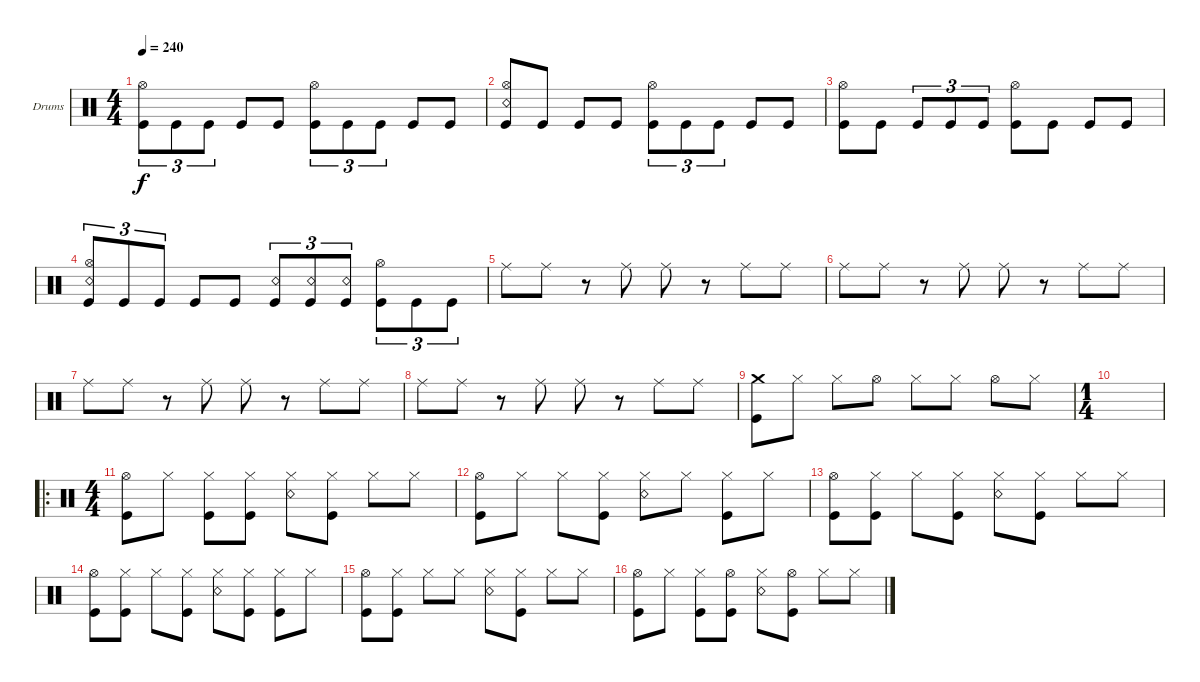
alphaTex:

\bracketExtendMode groupsimilarinstruments
\firstSystemTrackNameOrientation horizontal
\otherSystemsTrackNameOrientation horizontal
\track ("Drumkit" "Drums") {instrument percussion}
\staff {score}
\articulation defaults
\ts (4 4)
\tempo 240
\clef neutral
\ks c
("Kick (hit)" "Hi-Hat (open)").8{tu (3 2) dy f} "Kick (hit)".8{tu (3 2)} "Kick (hit)".8{tu (3 2)} "Kick (hit)".8 "Kick (hit)".8 ("Kick (hit)" "Hi-Hat (open)").8{tu (3 2)} "Kick (hit)".8{tu (3 2)} "Kick (hit)".8{tu (3 2)} "Kick (hit)".8 "Kick (hit)".8 |
("Hi-Hat (open)" "Kick (hit)" "Snare (rim shot)").8 "Kick (hit)".8 "Kick (hit)".8 "Kick (hit)".8 ("Hi-Hat (open)" "Kick (hit)").8{tu (3 2)} "Kick (hit)".8{tu (3 2)} "Kick (hit)".8{tu (3 2)} "Kick (hit)".8 "Kick (hit)".8 |
("Kick (hit)" "Hi-Hat (open)").8 "Kick (hit)".8 "Kick (hit)".8{tu (3 2)} "Kick (hit)".8{tu (3 2)} "Kick (hit)".8{tu (3 2)} ("Kick (hit)" "Hi-Hat (open)").8 "Kick (hit)".8 "Kick (hit)".8 "Kick (hit)".8 |
("Kick (hit)" "Hi-Hat (open)" "Snare (rim shot)").8{tu (3 2)} "Kick (hit)".8{tu (3 2)} "Kick (hit)".8{tu (3 2)} "Kick (hit)".8 "Kick (hit)".8 ("Kick (hit)" "Snare (rim shot)").8{tu (3 2)} ("Kick (hit)" "Snare (rim shot)").8{tu (3 2)} ("Kick (hit)" "Snare (rim shot)").8{tu (3 2)} ("Kick (hit)" "Hi-Hat (open)").8{tu (3 2)} "Kick (hit)".8{tu (3 2)} "Kick (hit)".8{tu (3 2)} |
"Ride (middle)".8 "Ride (middle)".8 r.8 "Ride (middle)".8 "Ride (middle)".8 r.8 "Ride (middle)".8 "Ride (middle)".8 |
"Ride (middle)".8 "Ride (middle)".8 r.8 "Ride (middle)".8 "Ride (middle)".8 r.8 "Ride (middle)".8 "Ride (middle)".8 |
"Ride (middle)".8 "Ride (middle)".8 r.8 "Ride (middle)".8 "Ride (middle)".8 r.8 "Ride (middle)".8 "Ride (middle)".8 |
"Ride (middle)".8 "Ride (middle)".8 r.8 "Ride (middle)".8 "Ride (middle)".8 r.8 "Ride (middle)".8 "Ride (middle)".8 |
("Crash medium (hit)" "Kick (hit)").8 "Hi-Hat (closed)".8 "Hi-Hat (closed)".8 "Hi-Hat (open)".8 "Hi-Hat (closed)".8 "Hi-Hat (closed)".8 "Hi-Hat (open)".8 "Hi-Hat (closed)".8 |
\ts (1 4)
|
\ro
\ts (4 4)
("Hi-Hat (open)" "Kick (hit)").8 "Hi-Hat (closed)".8 ("Hi-Hat (closed)" "Kick (hit)").8 ("Hi-Hat (closed)" "Kick (hit)").8 ("Snare (rim shot)" "Hi-Hat (closed)").8 ("Hi-Hat (closed)" "Kick (hit)").8 "Hi-Hat (closed)".8 "Hi-Hat (closed)".8 |
("Hi-Hat (open)" "Kick (hit)").8 "Hi-Hat (closed)".8 "Hi-Hat (closed)".8 ("Hi-Hat (closed)" "Kick (hit)").8 ("Hi-Hat (closed)" "Snare (rim shot)").8 "Hi-Hat (closed)".8 ("Hi-Hat (closed)" "Kick (hit)").8 "Hi-Hat (closed)".8 |
("Hi-Hat (open)" "Kick (hit)").8 ("Hi-Hat (closed)" "Kick (hit)").8 "Hi-Hat (closed)".8 ("Hi-Hat (closed)" "Kick (hit)").8 ("Snare (rim shot)" "Hi-Hat (closed)").8 ("Hi-Hat (closed)" "Kick (hit)").8 "Hi-Hat (closed)".8 "Hi-Hat (closed)".8 |
("Hi-Hat (open)" "Kick (hit)").8 ("Hi-Hat (closed)" "Kick (hit)").8 "Hi-Hat (closed)".8 ("Hi-Hat (closed)" "Kick (hit)").8 ("Snare (rim shot)" "Hi-Hat (closed)").8 ("Hi-Hat (closed)" "Kick (hit)").8 ("Hi-Hat (closed)" "Kick (hit)").8 "Hi-Hat (closed)".8 |
("Hi-Hat (open)" "Kick (hit)").8 ("Hi-Hat (closed)" "Kick (hit)").8 "Hi-Hat (closed)".8 "Hi-Hat (closed)".8 ("Snare (rim shot)" "Hi-Hat (closed)").8 ("Hi-Hat (closed)" "Kick (hit)").8 "Hi-Hat (closed)".8 "Hi-Hat (closed)".8 |
("Hi-Hat (open)" "Kick (hit)").8 "Hi-Hat (closed)".8 ("Hi-Hat (closed)" "Kick (hit)").8 ("Kick (hit)" "Hi-Hat (open)").8 ("Snare (rim shot)" "Hi-Hat (closed)").8 ("Hi-Hat (open)" "Kick (hit)").8 "Hi-Hat (closed)".8 "Hi-Hat (closed)".8
